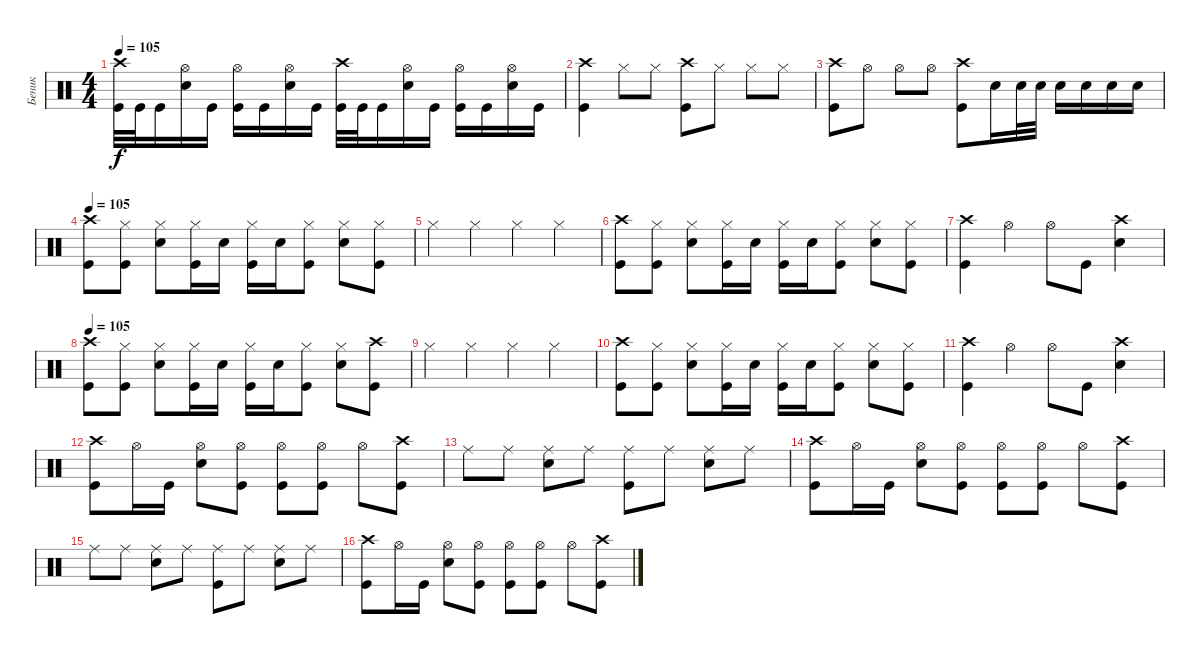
\track ("Беник" "Беник") {instrument percussion}
\staff {score}
\articulation defaults
\ts (4 4)
\tempo 105
\clef neutral
\ks c
("Kick (hit)" "Crash high (hit)").32{dy f} "Kick (hit)".32 "Kick (hit)".16 ("Snare (hit) 2" "Hi-Hat (open)").16 "Kick (hit)".16 ("Kick (hit)" "Hi-Hat (open)").16 "Kick (hit)".16 ("Snare (hit) 2" "Hi-Hat (open)").16 "Kick (hit)".16 ("Kick (hit)" "Crash high (hit)").32 "Kick (hit)".32 "Kick (hit)".16 ("Snare (hit) 2" "Hi-Hat (open)").16 "Kick (hit)".16 ("Kick (hit)" "Hi-Hat (open)").16 "Kick (hit)".16 ("Snare (hit) 2" "Hi-Hat (open)").16 "Kick (hit)".16 |
("Kick (hit)" "Crash high (hit)").4 "Hi-Hat (closed)".8 "Hi-Hat (closed)".8 ("Crash high (hit)" "Kick (hit)").8 "Hi-Hat (closed)".8 "Hi-Hat (closed)".8 "Hi-Hat (closed)".8 |
("Crash high (hit)" "Kick (hit)").8 "Hi-Hat (open)".8 "Hi-Hat (open)".8 "Hi-Hat (open)".8 ("Kick (hit)" "Crash high (hit)").8 "Snare (hit) 2".16 "Snare (hit) 2".32 "Snare (hit) 2".32 "Snare (hit) 2".16 "Snare (hit) 2".16 "Snare (hit) 2".16 "Snare (hit) 2".16 |
\tempo 105
("Kick (hit)" "Crash high (hit)").8 ("Kick (hit)" "Hi-Hat (closed)").8 ("Snare (hit) 2" "Hi-Hat (closed)").8 ("Kick (hit)" "Hi-Hat (closed)").16 "Snare (hit) 2".16 ("Hi-Hat (closed)" "Kick (hit)").16 "Snare (hit) 2".16 ("Hi-Hat (closed)" "Kick (hit)").8 ("Hi-Hat (closed)" "Snare (hit) 2").8 ("Hi-Hat (closed)" "Kick (hit)").8 |
"Hi-Hat (closed)".4 "Hi-Hat (closed)".4 "Hi-Hat (closed)".4 "Hi-Hat (closed)".4 |
("Kick (hit)" "Crash high (hit)").8 ("Kick (hit)" "Hi-Hat (closed)").8 ("Snare (hit) 2" "Hi-Hat (closed)").8 ("Kick (hit)" "Hi-Hat (closed)").16 "Snare (hit) 2".16 ("Hi-Hat (closed)" "Kick (hit)").16 "Snare (hit) 2".16 ("Hi-Hat (closed)" "Kick (hit)").8 ("Hi-Hat (closed)" "Snare (hit) 2").8 ("Hi-Hat (closed)" "Kick (hit)").8 |
("Kick (hit)" "Crash high (hit)").4 "Hi-Hat (open)".4 "Hi-Hat (open)".8 "Kick (hit)".8 ("Crash high (hit)" "Snare (hit) 2").4 |
\tempo 105
("Kick (hit)" "Crash high (hit)").8 ("Kick (hit)" "Hi-Hat (closed)").8 ("Snare (hit) 2" "Hi-Hat (closed)").8 ("Kick (hit)" "Hi-Hat (closed)").16 "Snare (hit) 2".16 ("Hi-Hat (closed)" "Kick (hit)").16 "Snare (hit) 2".16 ("Hi-Hat (closed)" "Kick (hit)").8 ("Hi-Hat (closed)" "Snare (hit) 2").8 ("Crash high (hit)" "Kick (hit)").8 |
"Hi-Hat (closed)".4 "Hi-Hat (closed)".4 "Hi-Hat (closed)".4 "Hi-Hat (closed)".4 |
("Kick (hit)" "Crash high (hit)").8 ("Kick (hit)" "Hi-Hat (closed)").8 ("Snare (hit) 2" "Hi-Hat (closed)").8 ("Kick (hit)" "Hi-Hat (closed)").16 "Snare (hit) 2".16 ("Hi-Hat (closed)" "Kick (hit)").16 "Snare (hit) 2".16 ("Hi-Hat (closed)" "Kick (hit)").8 ("Hi-Hat (closed)" "Snare (hit) 2").8 ("Hi-Hat (closed)" "Kick (hit)").8 |
("Kick (hit)" "Crash high (hit)").4 "Hi-Hat (open)".4 "Hi-Hat (open)".8 "Kick (hit)".8 ("Crash high (hit)" "Snare (hit) 2").4 |
("Crash high (hit)" "Kick (hit)").8 "Hi-Hat (open)".16 "Kick (hit)".16 ("Hi-Hat (open)" "Snare (hit) 2").8 ("Hi-Hat (open)" "Kick (hit)").8 ("Hi-Hat (open)" "Kick (hit)").8 ("Hi-Hat (open)" "Kick (hit)").8 "Hi-Hat (open)".8 ("Kick (hit)" "Crash high (hit)").8 |
"Ride (middle)".8 "Ride (middle)".8 ("Ride (middle)" "Snare (hit) 2").8 "Ride (middle)".8 ("Ride (middle)" "Kick (hit)").8 "Ride (middle)".8 ("Ride (middle)" "Snare (hit) 2").8 "Ride (middle)".8 |
("Crash high (hit)" "Kick (hit)").8 "Hi-Hat (open)".16 "Kick (hit)".16 ("Hi-Hat (open)" "Snare (hit) 2").8 ("Hi-Hat (open)" "Kick (hit)").8 ("Hi-Hat (open)" "Kick (hit)").8 ("Hi-Hat (open)" "Kick (hit)").8 "Hi-Hat (open)".8 ("Kick (hit)" "Crash high (hit)").8 |
"Ride (middle)".8 "Ride (middle)".8 ("Ride (middle)" "Snare (hit) 2").8 "Ride (middle)".8 ("Ride (middle)" "Kick (hit)").8 "Ride (middle)".8 ("Ride (middle)" "Snare (hit) 2").8 "Ride (middle)".8 |
("Crash high (hit)" "Kick (hit)").8 "Hi-Hat (open)".16 "Kick (hit)".16 ("Hi-Hat (open)" "Snare (hit) 2").8 ("Hi-Hat (open)" "Kick (hit)").8 ("Hi-Hat (open)" "Kick (hit)").8 ("Hi-Hat (open)" "Kick (hit)").8 "Hi-Hat (open)".8 ("Kick (hit)" "Crash high (hit)").8
